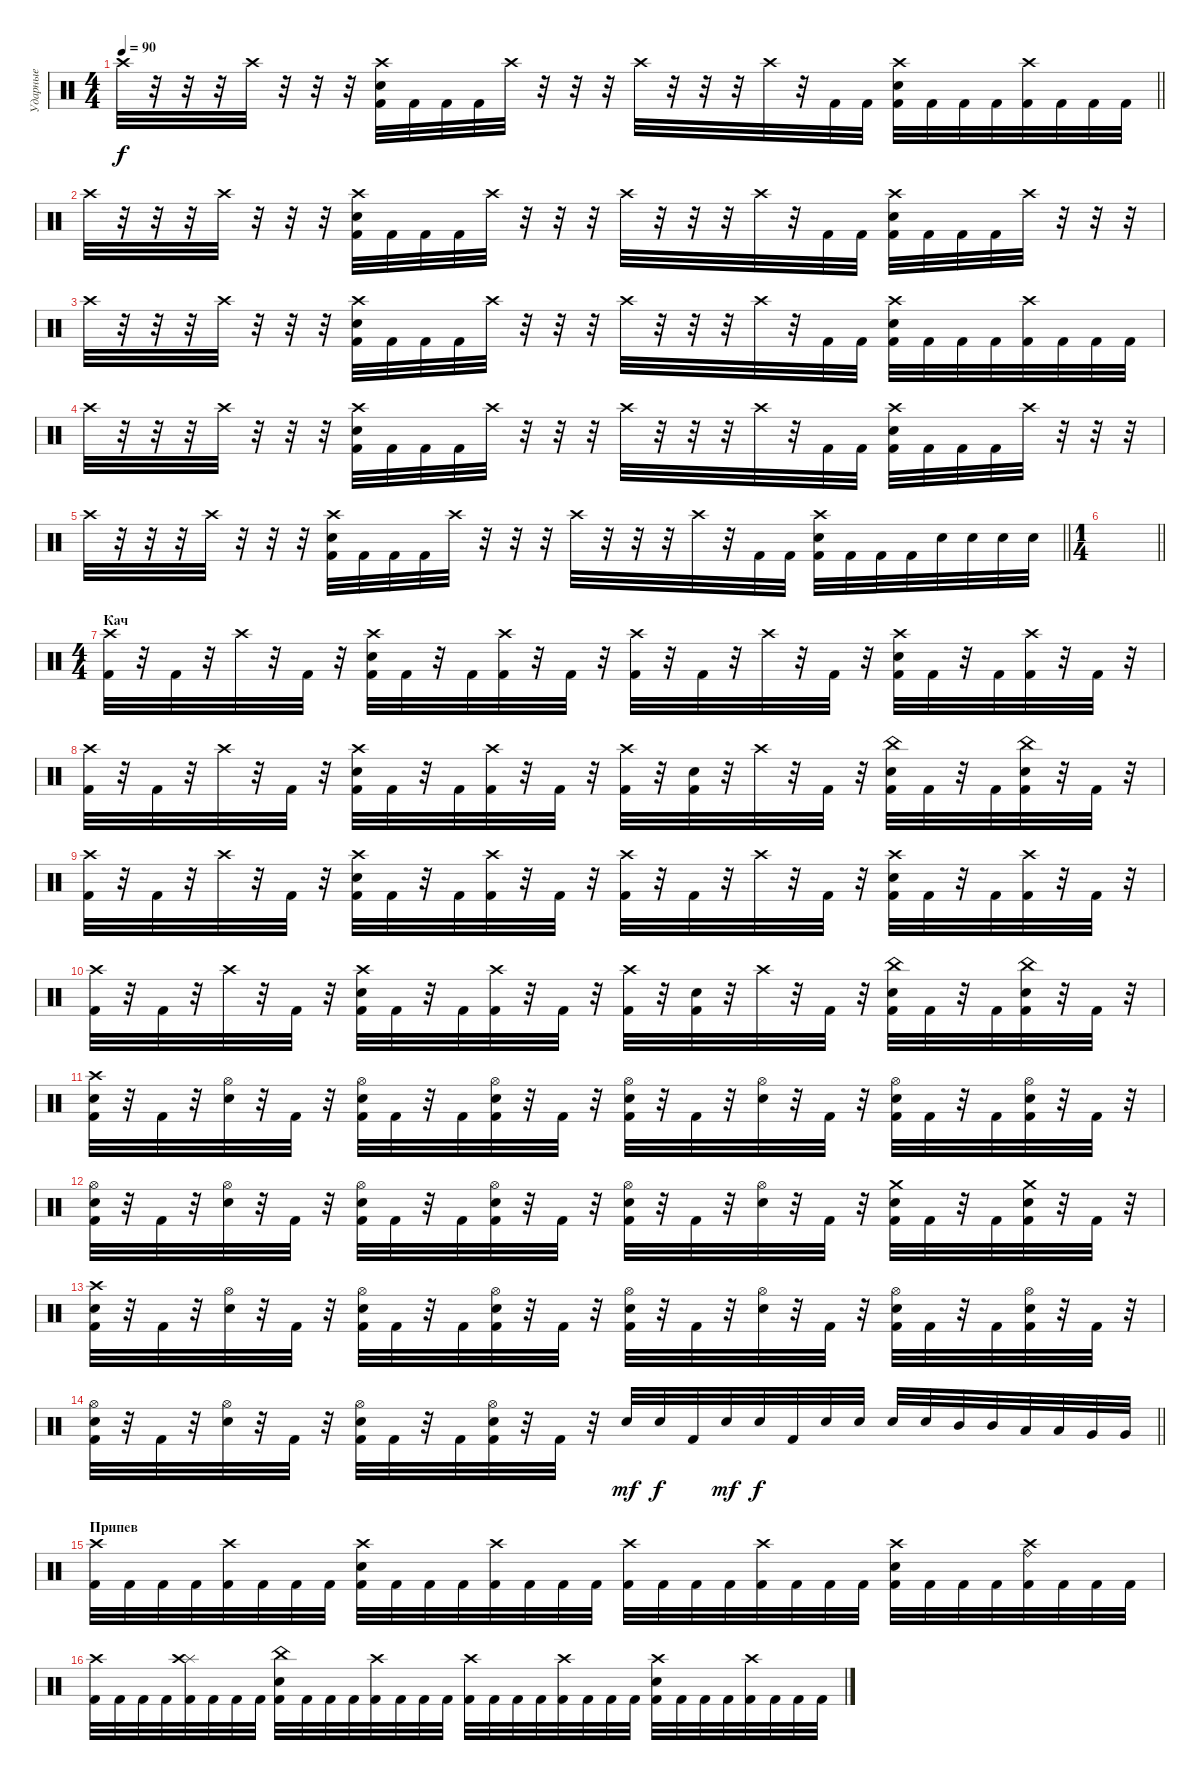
\track ("Ударные" "Ударные") {instrument percussion}
\staff {score}
\articulation defaults
\ts (4 4)
\tempo 90
\clef neutral
\barLineRight lightlight
\ks c "Crash high (hit)".32{dy f}
r.32 r.32 r.32 "Crash high (hit)".32 r.32 r.32 r.32 ("Crash high (hit)" "Electric Snare (hit)" "Kick (hit) 2").32 "Kick (hit) 2".32 "Kick (hit) 2".32 "Kick (hit) 2".32 "Crash high (hit)".32 r.32 r.32 r.32 "Crash high (hit)".32 r.32 r.32 r.32 "Crash high (hit)".32 r.32 "Kick (hit) 2".32 "Kick (hit) 2".32 ("Crash high (hit)" "Electric Snare (hit)" "Kick (hit) 2").32 "Kick (hit) 2".32 "Kick (hit) 2".32 "Kick (hit) 2".32 ("Crash high (hit)" "Kick (hit) 2").32 "Kick (hit) 2".32 "Kick (hit) 2".32 "Kick (hit) 2".32 |
"Crash high (hit)".32 r.32 r.32 r.32 "Crash high (hit)".32 r.32 r.32 r.32 ("Crash high (hit)" "Electric Snare (hit)" "Kick (hit) 2").32 "Kick (hit) 2".32 "Kick (hit) 2".32 "Kick (hit) 2".32 "Crash high (hit)".32 r.32 r.32 r.32 "Crash high (hit)".32 r.32 r.32 r.32 "Crash high (hit)".32 r.32 "Kick (hit) 2".32 "Kick (hit) 2".32 ("Crash high (hit)" "Electric Snare (hit)" "Kick (hit) 2").32 "Kick (hit) 2".32 "Kick (hit) 2".32 "Kick (hit) 2".32 "Crash high (hit)".32 r.32 r.32 r.32 |
"Crash high (hit)".32 r.32 r.32 r.32 "Crash high (hit)".32 r.32 r.32 r.32 ("Crash high (hit)" "Electric Snare (hit)" "Kick (hit) 2").32 "Kick (hit) 2".32 "Kick (hit) 2".32 "Kick (hit) 2".32 "Crash high (hit)".32 r.32 r.32 r.32 "Crash high (hit)".32 r.32 r.32 r.32 "Crash high (hit)".32 r.32 "Kick (hit) 2".32 "Kick (hit) 2".32 ("Crash high (hit)" "Electric Snare (hit)" "Kick (hit) 2").32 "Kick (hit) 2".32 "Kick (hit) 2".32 "Kick (hit) 2".32 ("Crash high (hit)" "Kick (hit) 2").32 "Kick (hit) 2".32 "Kick (hit) 2".32 "Kick (hit) 2".32 |
"Crash high (hit)".32 r.32 r.32 r.32 "Crash high (hit)".32 r.32 r.32 r.32 ("Crash high (hit)" "Electric Snare (hit)" "Kick (hit) 2").32 "Kick (hit) 2".32 "Kick (hit) 2".32 "Kick (hit) 2".32 "Crash high (hit)".32 r.32 r.32 r.32 "Crash high (hit)".32 r.32 r.32 r.32 "Crash high (hit)".32 r.32 "Kick (hit) 2".32 "Kick (hit) 2".32 ("Crash high (hit)" "Electric Snare (hit)" "Kick (hit) 2").32 "Kick (hit) 2".32 "Kick (hit) 2".32 "Kick (hit) 2".32 "Crash high (hit)".32 r.32 r.32 r.32 |
\barLineRight lightlight "Crash high (hit)".32
r.32 r.32 r.32 "Crash high (hit)".32 r.32 r.32 r.32 ("Crash high (hit)" "Electric Snare (hit)" "Kick (hit) 2").32 "Kick (hit) 2".32 "Kick (hit) 2".32 "Kick (hit) 2".32 "Crash high (hit)".32 r.32 r.32 r.32 "Crash high (hit)".32 r.32 r.32 r.32 "Crash high (hit)".32 r.32 "Kick (hit) 2".32 "Kick (hit) 2".32 ("Crash high (hit)" "Electric Snare (hit)" "Kick (hit) 2").32 "Kick (hit) 2".32 "Kick (hit) 2".32 "Kick (hit) 2".32 "Electric Snare (hit)".32 "Electric Snare (hit)".32 "Electric Snare (hit)".32 "Electric Snare (hit)".32 |
\ts (1 4)
\barLineRight lightlight
|
\ts (4 4)
\section ("" "Кач")
("Crash high (hit)" "Kick (hit) 2").32 r.32 "Kick (hit) 2".32 r.32 "Crash high (hit)".32 r.32 "Kick (hit) 2".32 r.32 ("Crash high (hit)" "Electric Snare (hit)" "Kick (hit) 2").32 "Kick (hit) 2".32 r.32 "Kick (hit) 2".32 ("Crash high (hit)" "Kick (hit) 2").32 r.32 "Kick (hit) 2".32 r.32 ("Crash high (hit)" "Kick (hit) 2").32 r.32 "Kick (hit) 2".32 r.32 "Crash high (hit)".32 r.32 "Kick (hit) 2".32 r.32 ("Crash high (hit)" "Electric Snare (hit)" "Kick (hit) 2").32 "Kick (hit) 2".32 r.32 "Kick (hit) 2".32 ("Crash high (hit)" "Kick (hit) 2").32 r.32 "Kick (hit) 2".32 r.32 |
("Crash high (hit)" "Kick (hit) 2").32 r.32 "Kick (hit) 2".32 r.32 "Crash high (hit)".32 r.32 "Kick (hit) 2".32 r.32 ("Crash high (hit)" "Electric Snare (hit)" "Kick (hit) 2").32 "Kick (hit) 2".32 r.32 "Kick (hit) 2".32 ("Crash high (hit)" "Kick (hit) 2").32 r.32 "Kick (hit) 2".32 r.32 ("Crash high (hit)" "Kick (hit) 2").32 r.32 ("Electric Snare (hit)" "Kick (hit) 2").32 r.32 "Crash high (hit)".32 r.32 "Kick (hit) 2".32 r.32 ("China (hit)" "Electric Snare (hit)" "Kick (hit) 2").32 "Kick (hit) 2".32 r.32 "Kick (hit) 2".32 ("China (hit)" "Electric Snare (hit)" "Kick (hit) 2").32 r.32 "Kick (hit) 2".32 r.32 |
("Crash high (hit)" "Kick (hit) 2").32 r.32 "Kick (hit) 2".32 r.32 "Crash high (hit)".32 r.32 "Kick (hit) 2".32 r.32 ("Crash high (hit)" "Electric Snare (hit)" "Kick (hit) 2").32 "Kick (hit) 2".32 r.32 "Kick (hit) 2".32 ("Crash high (hit)" "Kick (hit) 2").32 r.32 "Kick (hit) 2".32 r.32 ("Crash high (hit)" "Kick (hit) 2").32 r.32 "Kick (hit) 2".32 r.32 "Crash high (hit)".32 r.32 "Kick (hit) 2".32 r.32 ("Crash high (hit)" "Electric Snare (hit)" "Kick (hit) 2").32 "Kick (hit) 2".32 r.32 "Kick (hit) 2".32 ("Crash high (hit)" "Kick (hit) 2").32 r.32 "Kick (hit) 2".32 r.32 |
("Crash high (hit)" "Kick (hit) 2").32 r.32 "Kick (hit) 2".32 r.32 "Crash high (hit)".32 r.32 "Kick (hit) 2".32 r.32 ("Crash high (hit)" "Electric Snare (hit)" "Kick (hit) 2").32 "Kick (hit) 2".32 r.32 "Kick (hit) 2".32 ("Crash high (hit)" "Kick (hit) 2").32 r.32 "Kick (hit) 2".32 r.32 ("Crash high (hit)" "Kick (hit) 2").32 r.32 ("Electric Snare (hit)" "Kick (hit) 2").32 r.32 "Crash high (hit)".32 r.32 "Kick (hit) 2".32 r.32 ("China (hit)" "Electric Snare (hit)" "Kick (hit) 2").32 "Kick (hit) 2".32 r.32 "Kick (hit) 2".32 ("China (hit)" "Electric Snare (hit)" "Kick (hit) 2").32 r.32 "Kick (hit) 2".32 r.32 |
("Crash high (hit)" "Electric Snare (hit)" "Kick (hit) 2").32 r.32 "Kick (hit) 2".32 r.32 ("Hi-Hat (open)" "Electric Snare (hit)").32 r.32 "Kick (hit) 2".32 r.32 ("Hi-Hat (open)" "Electric Snare (hit)" "Kick (hit) 2").32 "Kick (hit) 2".32 r.32 "Kick (hit) 2".32 ("Hi-Hat (open)" "Electric Snare (hit)" "Kick (hit) 2").32 r.32 "Kick (hit) 2".32 r.32 ("Hi-Hat (open)" "Electric Snare (hit)" "Kick (hit) 2").32 r.32 "Kick (hit) 2".32 r.32 ("Hi-Hat (open)" "Electric Snare (hit)").32 r.32 "Kick (hit) 2".32 r.32 ("Hi-Hat (open)" "Electric Snare (hit)" "Kick (hit) 2").32 "Kick (hit) 2".32 r.32 "Kick (hit) 2".32 ("Hi-Hat (open)" "Electric Snare (hit)" "Kick (hit) 2").32 r.32 "Kick (hit) 2".32 r.32 |
("Hi-Hat (open)" "Electric Snare (hit)" "Kick (hit) 2").32 r.32 "Kick (hit) 2".32 r.32 ("Hi-Hat (open)" "Electric Snare (hit)").32 r.32 "Kick (hit) 2".32 r.32 ("Hi-Hat (open)" "Electric Snare (hit)" "Kick (hit) 2").32 "Kick (hit) 2".32 r.32 "Kick (hit) 2".32 ("Hi-Hat (open)" "Electric Snare (hit)" "Kick (hit) 2").32 r.32 "Kick (hit) 2".32 r.32 ("Hi-Hat (open)" "Electric Snare (hit)" "Kick (hit) 2").32 r.32 "Kick (hit) 2".32 r.32 ("Hi-Hat (open)" "Electric Snare (hit)").32 r.32 "Kick (hit) 2".32 r.32 ("Crash medium (hit)" "Electric Snare (hit)" "Kick (hit) 2").32 "Kick (hit) 2".32 r.32 "Kick (hit) 2".32 ("Crash medium (hit)" "Electric Snare (hit)" "Kick (hit) 2").32 r.32 "Kick (hit) 2".32 r.32 |
("Crash high (hit)" "Electric Snare (hit)" "Kick (hit) 2").32 r.32 "Kick (hit) 2".32 r.32 ("Hi-Hat (open)" "Electric Snare (hit)").32 r.32 "Kick (hit) 2".32 r.32 ("Hi-Hat (open)" "Electric Snare (hit)" "Kick (hit) 2").32 "Kick (hit) 2".32 r.32 "Kick (hit) 2".32 ("Hi-Hat (open)" "Electric Snare (hit)" "Kick (hit) 2").32 r.32 "Kick (hit) 2".32 r.32 ("Hi-Hat (open)" "Electric Snare (hit)" "Kick (hit) 2").32 r.32 "Kick (hit) 2".32 r.32 ("Hi-Hat (open)" "Electric Snare (hit)").32 r.32 "Kick (hit) 2".32 r.32 ("Hi-Hat (open)" "Electric Snare (hit)" "Kick (hit) 2").32 "Kick (hit) 2".32 r.32 "Kick (hit) 2".32 ("Hi-Hat (open)" "Electric Snare (hit)" "Kick (hit) 2").32 r.32 "Kick (hit) 2".32 r.32 |
\barLineRight lightlight
("Hi-Hat (open)" "Electric Snare (hit)" "Kick (hit) 2").32 r.32 "Kick (hit) 2".32 r.32 ("Hi-Hat (open)" "Electric Snare (hit)").32 r.32 "Kick (hit) 2".32 r.32 ("Hi-Hat (open)" "Electric Snare (hit)" "Kick (hit) 2").32 "Kick (hit) 2".32 r.32 "Kick (hit) 2".32 ("Hi-Hat (open)" "Electric Snare (hit)" "Kick (hit) 2").32 r.32 "Kick (hit) 2".32 r.32 "Electric Snare (hit)".32{dy mf} "Electric Snare (hit)".32{dy f} "Kick (hit) 2".32 "Electric Snare (hit)".32{dy mf} "Electric Snare (hit)".32{dy f} "Kick (hit) 2".32 "Electric Snare (hit)".32 "Electric Snare (hit)".32 "Electric Snare (hit)".32 "Electric Snare (hit)".32 "Mid Tom (hit)".32 "Mid Tom (hit)".32 "Low Tom (hit)".32 "Low Tom (hit)".32 "Very Low Tom (hit)".32 "Very Low Tom (hit)".32 |
\section ("" "Припев")
("Crash high (hit)" "Kick (hit) 2").32 "Kick (hit) 2".32 "Kick (hit) 2".32 "Kick (hit) 2".32 ("Crash high (hit)" "Kick (hit) 2").32 "Kick (hit) 2".32 "Kick (hit) 2".32 "Kick (hit) 2".32 ("Crash high (hit)" "Electric Snare (hit)" "Kick (hit) 2").32 "Kick (hit) 2".32 "Kick (hit) 2".32 "Kick (hit) 2".32 ("Crash high (hit)" "Kick (hit) 2").32 "Kick (hit) 2".32 "Kick (hit) 2".32 "Kick (hit) 2".32 ("Crash high (hit)" "Kick (hit) 2").32 "Kick (hit) 2".32 "Kick (hit) 2".32 "Kick (hit) 2".32 ("Crash high (hit)" "Kick (hit) 2").32 "Kick (hit) 2".32 "Kick (hit) 2".32 "Kick (hit) 2".32 ("Crash high (hit)" "Electric Snare (hit)" "Kick (hit) 2").32 "Kick (hit) 2".32 "Kick (hit) 2".32 "Kick (hit) 2".32 ("Crash high (hit)" "Ride (bell)" "Kick (hit) 2").32 "Kick (hit) 2".32 "Kick (hit) 2".32 "Kick (hit) 2".32 |
("Crash high (hit)" "Kick (hit) 2").32 "Kick (hit) 2".32 "Kick (hit) 2".32 "Kick (hit) 2".32 ("Splash (hit)" "Crash high (hit)" "Kick (hit) 2").32 "Kick (hit) 2".32 "Kick (hit) 2".32 "Kick (hit) 2".32 ("China (hit)" "Electric Snare (hit)" "Kick (hit) 2").32 "Kick (hit) 2".32 "Kick (hit) 2".32 "Kick (hit) 2".32 ("Crash high (hit)" "Kick (hit) 2").32 "Kick (hit) 2".32 "Kick (hit) 2".32 "Kick (hit) 2".32 ("Crash high (hit)" "Kick (hit) 2").32 "Kick (hit) 2".32 "Kick (hit) 2".32 "Kick (hit) 2".32 ("Crash high (hit)" "Kick (hit) 2").32 "Kick (hit) 2".32 "Kick (hit) 2".32 "Kick (hit) 2".32 ("Crash high (hit)" "Electric Snare (hit)" "Kick (hit) 2").32 "Kick (hit) 2".32 "Kick (hit) 2".32 "Kick (hit) 2".32 ("Crash high (hit)" "Kick (hit) 2").32 "Kick (hit) 2".32 "Kick (hit) 2".32 "Kick (hit) 2".32
